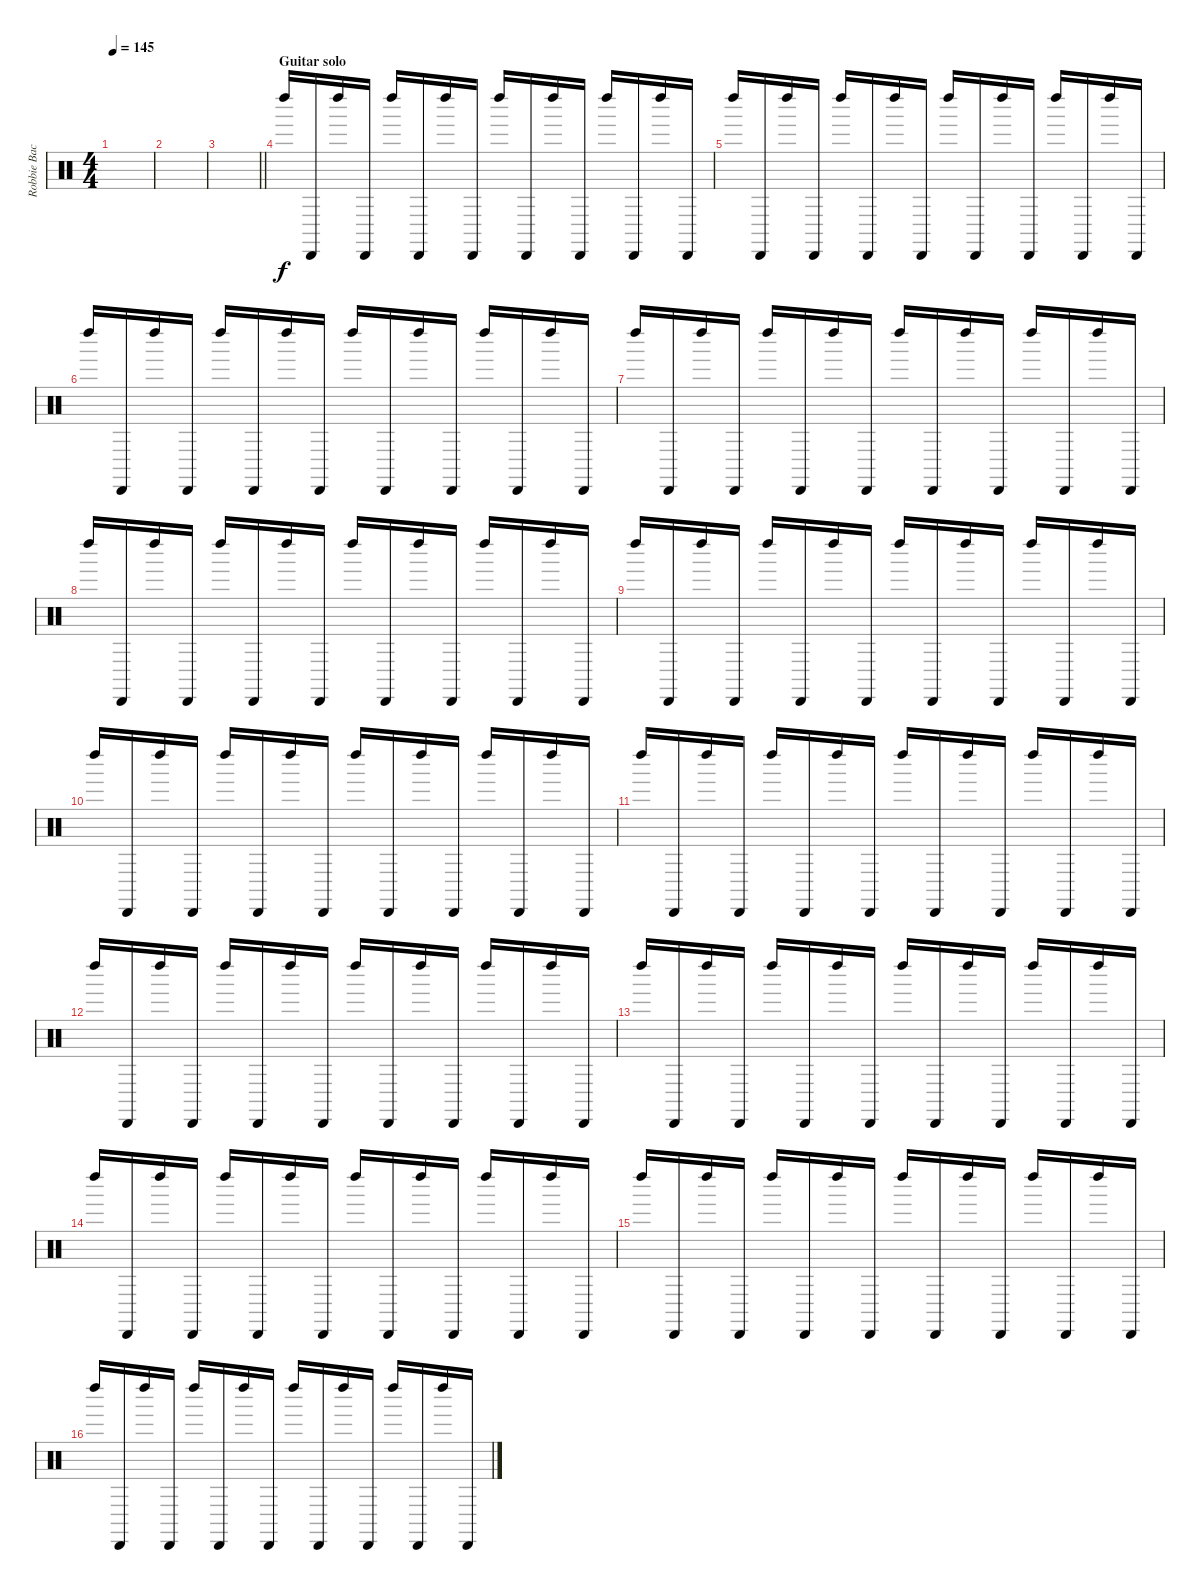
\track ("Robbie Bachman 2" "Robbie Bac") {instrument percussion}
\staff {score}
\articulation defaults
\ts (4 4)
\tempo 145
\clef neutral
\ks c
|
|
\barLineRight lightlight
|
\section ("" "Guitar solo")
"Left Maraca (hit)".16 "Cabasa (hit)".16 "Left Maraca (hit)".16 "Cabasa (hit)".16 "Left Maraca (hit)".16 "Cabasa (hit)".16 "Left Maraca (hit)".16 "Cabasa (hit)".16 "Left Maraca (hit)".16 "Cabasa (hit)".16 "Left Maraca (hit)".16 "Cabasa (hit)".16 "Left Maraca (hit)".16 "Cabasa (hit)".16 "Left Maraca (hit)".16 "Cabasa (hit)".16 |
"Left Maraca (hit)".16 "Cabasa (hit)".16 "Left Maraca (hit)".16 "Cabasa (hit)".16 "Left Maraca (hit)".16 "Cabasa (hit)".16 "Left Maraca (hit)".16 "Cabasa (hit)".16 "Left Maraca (hit)".16 "Cabasa (hit)".16 "Left Maraca (hit)".16 "Cabasa (hit)".16 "Left Maraca (hit)".16 "Cabasa (hit)".16 "Left Maraca (hit)".16 "Cabasa (hit)".16 |
"Left Maraca (hit)".16 "Cabasa (hit)".16 "Left Maraca (hit)".16 "Cabasa (hit)".16 "Left Maraca (hit)".16 "Cabasa (hit)".16 "Left Maraca (hit)".16 "Cabasa (hit)".16 "Left Maraca (hit)".16 "Cabasa (hit)".16 "Left Maraca (hit)".16 "Cabasa (hit)".16 "Left Maraca (hit)".16 "Cabasa (hit)".16 "Left Maraca (hit)".16 "Cabasa (hit)".16 |
"Left Maraca (hit)".16 "Cabasa (hit)".16 "Left Maraca (hit)".16 "Cabasa (hit)".16 "Left Maraca (hit)".16 "Cabasa (hit)".16 "Left Maraca (hit)".16 "Cabasa (hit)".16 "Left Maraca (hit)".16 "Cabasa (hit)".16 "Left Maraca (hit)".16 "Cabasa (hit)".16 "Left Maraca (hit)".16 "Cabasa (hit)".16 "Left Maraca (hit)".16 "Cabasa (hit)".16 |
"Left Maraca (hit)".16 "Cabasa (hit)".16 "Left Maraca (hit)".16 "Cabasa (hit)".16 "Left Maraca (hit)".16 "Cabasa (hit)".16 "Left Maraca (hit)".16 "Cabasa (hit)".16 "Left Maraca (hit)".16 "Cabasa (hit)".16 "Left Maraca (hit)".16 "Cabasa (hit)".16 "Left Maraca (hit)".16 "Cabasa (hit)".16 "Left Maraca (hit)".16 "Cabasa (hit)".16 |
"Left Maraca (hit)".16 "Cabasa (hit)".16 "Left Maraca (hit)".16 "Cabasa (hit)".16 "Left Maraca (hit)".16 "Cabasa (hit)".16 "Left Maraca (hit)".16 "Cabasa (hit)".16 "Left Maraca (hit)".16 "Cabasa (hit)".16 "Left Maraca (hit)".16 "Cabasa (hit)".16 "Left Maraca (hit)".16 "Cabasa (hit)".16 "Left Maraca (hit)".16 "Cabasa (hit)".16 |
"Left Maraca (hit)".16 "Cabasa (hit)".16 "Left Maraca (hit)".16 "Cabasa (hit)".16 "Left Maraca (hit)".16 "Cabasa (hit)".16 "Left Maraca (hit)".16 "Cabasa (hit)".16 "Left Maraca (hit)".16 "Cabasa (hit)".16 "Left Maraca (hit)".16 "Cabasa (hit)".16 "Left Maraca (hit)".16 "Cabasa (hit)".16 "Left Maraca (hit)".16 "Cabasa (hit)".16 |
"Left Maraca (hit)".16 "Cabasa (hit)".16 "Left Maraca (hit)".16 "Cabasa (hit)".16 "Left Maraca (hit)".16 "Cabasa (hit)".16 "Left Maraca (hit)".16 "Cabasa (hit)".16 "Left Maraca (hit)".16 "Cabasa (hit)".16 "Left Maraca (hit)".16 "Cabasa (hit)".16 "Left Maraca (hit)".16 "Cabasa (hit)".16 "Left Maraca (hit)".16 "Cabasa (hit)".16 |
"Left Maraca (hit)".16 "Cabasa (hit)".16 "Left Maraca (hit)".16 "Cabasa (hit)".16 "Left Maraca (hit)".16 "Cabasa (hit)".16 "Left Maraca (hit)".16 "Cabasa (hit)".16 "Left Maraca (hit)".16 "Cabasa (hit)".16 "Left Maraca (hit)".16 "Cabasa (hit)".16 "Left Maraca (hit)".16 "Cabasa (hit)".16 "Left Maraca (hit)".16 "Cabasa (hit)".16 |
"Left Maraca (hit)".16 "Cabasa (hit)".16 "Left Maraca (hit)".16 "Cabasa (hit)".16 "Left Maraca (hit)".16 "Cabasa (hit)".16 "Left Maraca (hit)".16 "Cabasa (hit)".16 "Left Maraca (hit)".16 "Cabasa (hit)".16 "Left Maraca (hit)".16 "Cabasa (hit)".16 "Left Maraca (hit)".16 "Cabasa (hit)".16 "Left Maraca (hit)".16 "Cabasa (hit)".16 |
"Left Maraca (hit)".16 "Cabasa (hit)".16 "Left Maraca (hit)".16 "Cabasa (hit)".16 "Left Maraca (hit)".16 "Cabasa (hit)".16 "Left Maraca (hit)".16 "Cabasa (hit)".16 "Left Maraca (hit)".16 "Cabasa (hit)".16 "Left Maraca (hit)".16 "Cabasa (hit)".16 "Left Maraca (hit)".16 "Cabasa (hit)".16 "Left Maraca (hit)".16 "Cabasa (hit)".16 |
"Left Maraca (hit)".16 "Cabasa (hit)".16 "Left Maraca (hit)".16 "Cabasa (hit)".16 "Left Maraca (hit)".16 "Cabasa (hit)".16 "Left Maraca (hit)".16 "Cabasa (hit)".16 "Left Maraca (hit)".16 "Cabasa (hit)".16 "Left Maraca (hit)".16 "Cabasa (hit)".16 "Left Maraca (hit)".16 "Cabasa (hit)".16 "Left Maraca (hit)".16 "Cabasa (hit)".16 |
"Left Maraca (hit)".16 "Cabasa (hit)".16 "Left Maraca (hit)".16 "Cabasa (hit)".16 "Left Maraca (hit)".16 "Cabasa (hit)".16 "Left Maraca (hit)".16 "Cabasa (hit)".16 "Left Maraca (hit)".16 "Cabasa (hit)".16 "Left Maraca (hit)".16 "Cabasa (hit)".16 "Left Maraca (hit)".16 "Cabasa (hit)".16 "Left Maraca (hit)".16 "Cabasa (hit)".16
